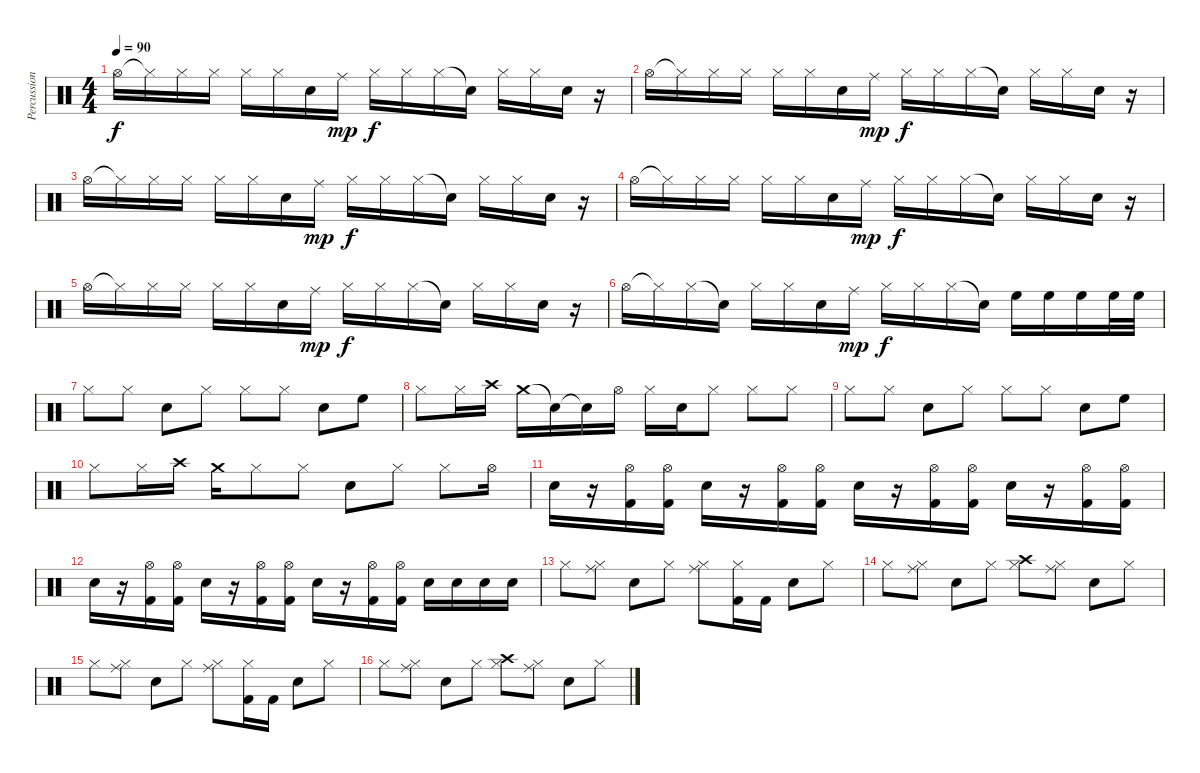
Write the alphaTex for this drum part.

\track ("Percussioni" "Percussion") {instrument percussion}
\staff {score}
\articulation defaults
\ts (4 4)
\tempo 90
\clef neutral
\ks c "Hi-Hat (open)".16{dy f} "Hi-Hat (closed)"{t}.16 "Hi-Hat (closed)".16 "Hi-Hat (closed)".16 "Hi-Hat (closed)".16 "Hi-Hat (closed)".16 "Snare (hit) 2".16 "Ride (middle)".16{dy mp} "Hi-Hat (closed)".16{dy f} "Hi-Hat (closed)".16 "Hi-Hat (closed)".16 "Snare (hit)"{t}.16 "Hi-Hat (closed)".16 "Hi-Hat (closed)".16 "Snare (hit) 2".16
r.16 |
"Hi-Hat (open)".16 "Hi-Hat (closed)"{t}.16 "Hi-Hat (closed)".16 "Hi-Hat (closed)".16 "Hi-Hat (closed)".16 "Hi-Hat (closed)".16 "Snare (hit) 2".16 "Ride (middle)".16{dy mp} "Hi-Hat (closed)".16{dy f} "Hi-Hat (closed)".16 "Hi-Hat (closed)".16 "Snare (hit)"{t}.16 "Hi-Hat (closed)".16 "Hi-Hat (closed)".16 "Snare (hit) 2".16 r.16 |
"Hi-Hat (open)".16 "Hi-Hat (closed)"{t}.16 "Hi-Hat (closed)".16 "Hi-Hat (closed)".16 "Hi-Hat (closed)".16 "Hi-Hat (closed)".16 "Snare (hit) 2".16 "Ride (middle)".16{dy mp} "Hi-Hat (closed)".16{dy f} "Hi-Hat (closed)".16 "Hi-Hat (closed)".16 "Snare (hit)"{t}.16 "Hi-Hat (closed)".16 "Hi-Hat (closed)".16 "Snare (hit) 2".16 r.16 |
"Hi-Hat (open)".16 "Hi-Hat (closed)"{t}.16 "Hi-Hat (closed)".16 "Hi-Hat (closed)".16 "Hi-Hat (closed)".16 "Hi-Hat (closed)".16 "Snare (hit) 2".16 "Ride (middle)".16{dy mp} "Hi-Hat (closed)".16{dy f} "Hi-Hat (closed)".16 "Hi-Hat (closed)".16 "Snare (hit)"{t}.16 "Hi-Hat (closed)".16 "Hi-Hat (closed)".16 "Snare (hit) 2".16 r.16 |
"Hi-Hat (open)".16 "Hi-Hat (closed)"{t}.16 "Hi-Hat (closed)".16 "Hi-Hat (closed)".16 "Hi-Hat (closed)".16 "Hi-Hat (closed)".16 "Snare (hit) 2".16 "Ride (middle)".16{dy mp} "Hi-Hat (closed)".16{dy f} "Hi-Hat (closed)".16 "Hi-Hat (closed)".16 "Snare (hit)"{t}.16 "Hi-Hat (closed)".16 "Hi-Hat (closed)".16 "Snare (hit) 2".16 r.16 |
"Hi-Hat (open)".16 "Hi-Hat (closed)"{t}.16 "Hi-Hat (closed)".16 "Snare (hit)"{t}.16 "Hi-Hat (closed)".16 "Hi-Hat (closed)".16 "Snare (hit) 2".16 "Ride (middle)".16{dy mp} "Hi-Hat (closed)".16{dy f} "Hi-Hat (closed)".16 "Hi-Hat (closed)".16 "Snare (hit)"{t}.16 "High Floor Tom (hit)".16 "High Floor Tom (hit)".16 "High Floor Tom (hit)".16 "High Floor Tom (hit)".32 "High Floor Tom (hit)".32 |
"Hi-Hat (closed)".8 "Hi-Hat (closed)".8 "Snare (hit) 2".8 "Hi-Hat (closed)".8 "Hi-Hat (closed)".8 "Hi-Hat (closed)".8 "Snare (hit) 2".8 "High Floor Tom (hit)".8 |
"Hi-Hat (closed)".8 "Hi-Hat (closed)".16 "Crash high (hit)".16 "Crash medium (hit)".16 "Snare (hit)"{t}.16 "Snare (hit)"{t}.16 "Hi-Hat (open)".16 "Hi-Hat (closed)".16 "Snare (hit) 2".16 "Hi-Hat (closed)".8 "Hi-Hat (closed)".8 "Hi-Hat (closed)".8 |
"Hi-Hat (closed)".8 "Hi-Hat (closed)".8 "Snare (hit) 2".8 "Hi-Hat (closed)".8 "Hi-Hat (closed)".8 "Hi-Hat (closed)".8 "Snare (hit) 2".8 "High Floor Tom (hit)".8 |
"Hi-Hat (closed)".8 "Hi-Hat (closed)".16 "Crash high (hit)".16 "Crash medium (hit)".16 "Hi-Hat (closed)".8 "Hi-Hat (closed)".8 "Snare (hit) 2".8 "Hi-Hat (closed)".8 "Hi-Hat (closed)".8 "Hi-Hat (open)".16 |
"Snare (hit) 2".16 r.16 ("Hi-Hat (open)" "Kick (hit) 2").16 ("Hi-Hat (open)" "Kick (hit) 2").16 "Snare (hit) 2".16 r.16 ("Hi-Hat (open)" "Kick (hit) 2").16 ("Hi-Hat (open)" "Kick (hit) 2").16 "Snare (hit) 2".16 r.16 ("Hi-Hat (open)" "Kick (hit) 2").16 ("Hi-Hat (open)" "Kick (hit) 2").16 "Snare (hit) 2".16 r.16 ("Hi-Hat (open)" "Kick (hit) 2").16 ("Hi-Hat (open)" "Kick (hit) 2").16 |
"Snare (hit) 2".16 r.16 ("Hi-Hat (open)" "Kick (hit) 2").16 ("Hi-Hat (open)" "Kick (hit) 2").16 "Snare (hit) 2".16 r.16 ("Hi-Hat (open)" "Kick (hit) 2").16 ("Hi-Hat (open)" "Kick (hit) 2").16 "Snare (hit) 2".16 r.16 ("Hi-Hat (open)" "Kick (hit) 2").16 ("Hi-Hat (open)" "Kick (hit) 2").16 "Snare (hit) 2".16 "Snare (hit) 2".16 "Snare (hit) 2".16 "Snare (hit) 2".16 |
"Hi-Hat (closed)".8 ("Ride (middle)" "Hi-Hat (closed)").8 "Snare (hit) 2".8 "Hi-Hat (closed)".8 ("Ride (middle)" "Hi-Hat (closed)").8 ("Hi-Hat (closed)" "Kick (hit) 2").16 "Kick (hit) 2".16 "Snare (hit) 2".8 "Hi-Hat (closed)".8 |
"Hi-Hat (closed)".8 ("Ride (middle)" "Hi-Hat (closed)").8 "Snare (hit) 2".8 "Hi-Hat (closed)".8 ("Crash high (hit)" "Hi-Hat (closed)").8 ("Ride (middle)" "Hi-Hat (closed)").8 "Snare (hit) 2".8 "Hi-Hat (closed)".8 |
"Hi-Hat (closed)".8 ("Ride (middle)" "Hi-Hat (closed)").8 "Snare (hit) 2".8 "Hi-Hat (closed)".8 ("Ride (middle)" "Hi-Hat (closed)").8 ("Hi-Hat (closed)" "Kick (hit) 2").16 "Kick (hit) 2".16 "Snare (hit) 2".8 "Hi-Hat (closed)".8 |
"Hi-Hat (closed)".8 ("Ride (middle)" "Hi-Hat (closed)").8 "Snare (hit) 2".8 "Hi-Hat (closed)".8 ("Crash high (hit)" "Hi-Hat (closed)").8 ("Ride (middle)" "Hi-Hat (closed)").8 "Snare (hit) 2".8 "Hi-Hat (closed)".8
